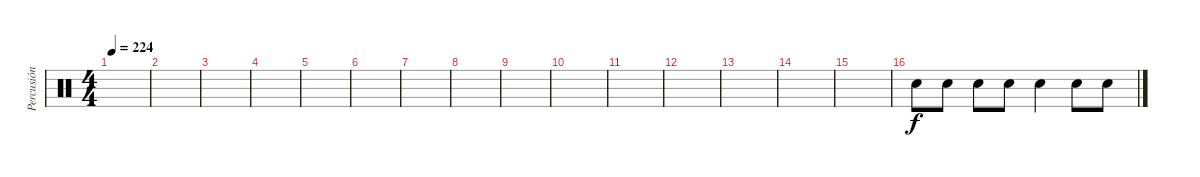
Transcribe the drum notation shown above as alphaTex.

\track ("Percusión" "Percusión") {instrument percussion}
\staff {score}
\articulation defaults
\ts (4 4)
\tempo 224
\clef neutral
\ks c
|
|
|
|
|
|
|
|
|
|
|
|
|
|
|
"Electric Snare (hit)".8{volume 10} "Electric Snare (hit)".8 "Electric Snare (hit)".8 "Electric Snare (hit)".8 "Electric Snare (hit)".4 "Electric Snare (hit)".8 "Electric Snare (hit)".8
